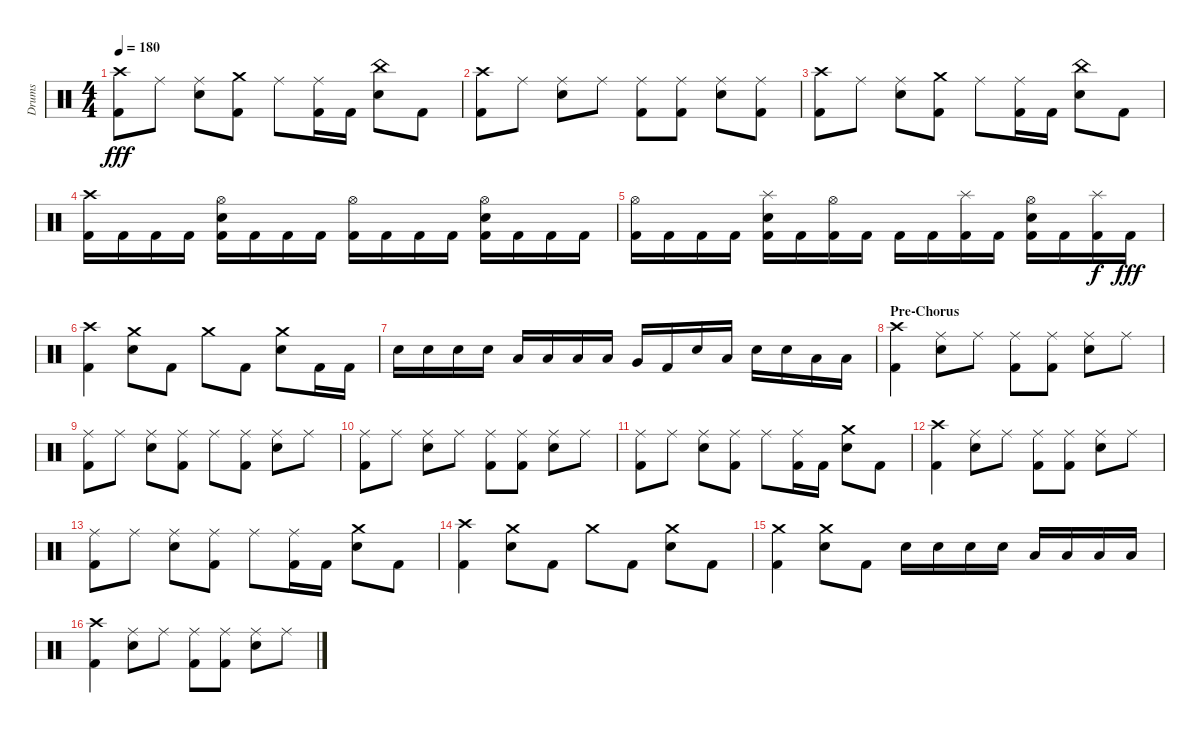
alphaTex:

\track ("Drums" "Drums") {instrument percussion}
\staff {score}
\articulation defaults
\ts (4 4)
\tempo 180
\clef neutral
\ks aminor
("Kick (hit) 2" "Crash high (hit)").8{dy fff} "Ride (middle)".8 ("Snare (hit) 2" "Ride (middle)").8 ("Kick (hit) 2" "Crash medium (hit)").8 "Ride (middle)".8 ("Kick (hit) 2" "Ride (middle)").16 "Kick (hit) 2".16 ("Snare (hit) 2" "China (hit)").8 "Kick (hit) 2".8 |
("Kick (hit) 2" "Crash high (hit)").8 "Ride (middle)".8 ("Snare (hit) 2" "Ride (middle)").8 "Ride (middle)".8 ("Ride (middle)" "Kick (hit) 2").8 ("Ride (middle)" "Kick (hit) 2").8 ("Snare (hit) 2" "Ride (middle)").8 ("Ride (middle)" "Kick (hit) 2").8 |
("Kick (hit) 2" "Crash high (hit)").8 "Ride (middle)".8 ("Ride (middle)" "Snare (hit) 2").8 ("Crash medium (hit)" "Kick (hit) 2").8 "Ride (middle)".8 ("Ride (middle)" "Kick (hit) 2").16 "Kick (hit) 2".16 ("Snare (hit) 2" "China (hit)").8 "Kick (hit) 2".8 |
("Kick (hit) 2" "Crash high (hit)").16 "Kick (hit) 2".16 "Kick (hit) 2".16 "Kick (hit) 2".16 ("Hi-Hat (open)" "Kick (hit) 2" "Snare (hit) 2").16 "Kick (hit) 2".16 "Kick (hit) 2".16 "Kick (hit) 2".16 ("Kick (hit) 2" "Hi-Hat (open)").16 "Kick (hit) 2".16 "Kick (hit) 2".16 "Kick (hit) 2".16 ("Hi-Hat (open)" "Kick (hit) 2" "Snare (hit) 2").16 "Kick (hit) 2".16 "Kick (hit) 2".16 "Kick (hit) 2".16 |
("Kick (hit) 2" "Hi-Hat (open)").16 "Kick (hit) 2".16 "Kick (hit) 2".16 "Kick (hit) 2".16 ("Kick (hit) 2" "Splash (hit)" "Snare (hit) 2").16 "Kick (hit) 2".16 ("Kick (hit) 2" "Hi-Hat (open)").16 "Kick (hit) 2".16 "Kick (hit) 2".16 "Kick (hit) 2".16 ("Kick (hit) 2" "Splash (hit)").16 "Kick (hit) 2".16 ("Kick (hit) 2" "Snare (hit) 2" "Hi-Hat (open)").16 "Kick (hit) 2".16 ("Splash (hit)" "Kick (hit) 2").16{dy f} "Kick (hit) 2".16{dy fff} |
("Crash high (hit)" "Kick (hit) 2").4 ("Crash medium (hit)" "Snare (hit) 2").8 "Kick (hit) 2".8 "Crash medium (hit)".8 "Kick (hit) 2".8 ("Crash medium (hit)" "Snare (hit) 2").8 "Kick (hit) 2".16 "Kick (hit) 2".16 |
"Snare (hit) 2".16 "Snare (hit) 2".16 "Snare (hit) 2".16 "Snare (hit) 2".16 "Low Tom (hit)".16 "Low Tom (hit)".16 "Low Tom (hit)".16 "Low Tom (hit)".16 "Very Low Tom (hit)".16 "Kick (hit) 2".16 "Snare (hit) 2".16 "Low Floor Tom (hit)".16 "Snare (hit) 2".16 "Snare (hit) 2".16 "Low Floor Tom (hit)".16 "Low Floor Tom (hit)".16 |
\section ("" "Pre-Chorus")
("Crash high (hit)" "Kick (hit) 2").4 ("Snare (hit) 2" "Ride (middle)").8 "Ride (middle)".8 ("Kick (hit) 2" "Ride (middle)").8 ("Ride (middle)" "Kick (hit) 2").8 ("Ride (middle)" "Snare (hit) 2").8 "Ride (middle)".8 |
("Kick (hit) 2" "Ride (middle)").8 "Ride (middle)".8 ("Ride (middle)" "Snare (hit) 2").8 ("Ride (middle)" "Kick (hit) 2").8 "Ride (middle)".8 ("Kick (hit) 2" "Ride (middle)").8 ("Snare (hit) 2" "Ride (middle)").8 "Ride (middle)".8 |
("Kick (hit) 2" "Ride (middle)").8 "Ride (middle)".8 ("Ride (middle)" "Snare (hit) 2").8 "Ride (middle)".8 ("Kick (hit) 2" "Ride (middle)").8 ("Kick (hit) 2" "Ride (middle)").8 ("Snare (hit) 2" "Ride (middle)").8 "Ride (middle)".8 |
("Kick (hit) 2" "Ride (middle)").8 "Ride (middle)".8 ("Snare (hit) 2" "Ride (middle)").8 ("Kick (hit) 2" "Ride (middle)").8 "Ride (middle)".8 ("Kick (hit) 2" "Ride (middle)").16 "Kick (hit) 2".16 ("Crash medium (hit)" "Snare (hit) 2").8 "Kick (hit) 2".8 |
("Kick (hit) 2" "Crash high (hit)").4 ("Ride (middle)" "Snare (hit) 2").8 "Ride (middle)".8 ("Kick (hit) 2" "Ride (middle)").8 ("Kick (hit) 2" "Ride (middle)").8 ("Snare (hit) 2" "Ride (middle)").8 "Ride (middle)".8 |
("Ride (middle)" "Kick (hit) 2").8 "Ride (middle)".8 ("Snare (hit) 2" "Ride (middle)").8 ("Kick (hit) 2" "Ride (middle)").8 "Ride (middle)".8 ("Ride (middle)" "Kick (hit) 2").16 "Kick (hit) 2".16 ("Snare (hit) 2" "Crash medium (hit)").8 "Kick (hit) 2".8 |
("Kick (hit) 2" "Crash high (hit)").4 ("Snare (hit) 2" "Crash medium (hit)").8 "Kick (hit) 2".8 "Crash medium (hit)".8 "Kick (hit) 2".8 ("Snare (hit) 2" "Crash medium (hit)").8 "Kick (hit) 2".8 |
("Crash medium (hit)" "Kick (hit) 2").4 ("Snare (hit) 2" "Crash medium (hit)").8 "Kick (hit) 2".8 "Snare (hit) 2".16 "Snare (hit) 2".16 "Snare (hit) 2".16 "Snare (hit) 2".16 "Low Floor Tom (hit)".16 "Low Floor Tom (hit)".16 "Low Floor Tom (hit)".16 "Low Floor Tom (hit)".16 |
("Kick (hit) 2" "Crash high (hit)").4 ("Ride (middle)" "Snare (hit) 2").8 "Ride (middle)".8 ("Ride (middle)" "Kick (hit) 2").8 ("Kick (hit) 2" "Ride (middle)").8 ("Snare (hit) 2" "Ride (middle)").8 "Ride (middle)".8
